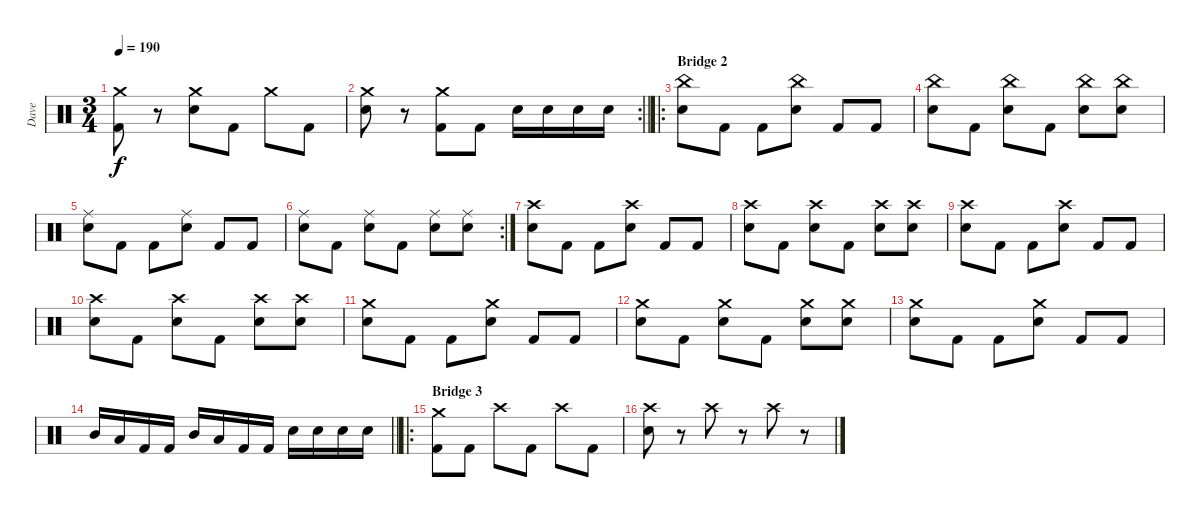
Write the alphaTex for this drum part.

\track ("Dave" "Dave") {instrument percussion}
\staff {score}
\articulation defaults
\ts (3 4)
\tempo 190
\clef neutral
\ks c
("Kick (hit) 2" "Crash medium (hit)").8{dy f} r.8 ("Electric Snare (hit)" "Crash medium (hit)").8 "Kick (hit) 2".8 "Crash medium (hit)".8 "Kick (hit) 2".8 |
\rc 2
\barLineRight lightlight
("Electric Snare (hit)" "Crash medium (hit)").8 r.8 ("Kick (hit) 2" "Crash medium (hit)").8 "Kick (hit) 2".8 "Electric Snare (hit)".16 "Electric Snare (hit)".16 "Electric Snare (hit)".16 "Electric Snare (hit)".16 |
\ro
\section ("" "Bridge 2")
("Electric Snare (hit)" "China (hit)").8 "Kick (hit) 2".8 "Kick (hit) 2".8 ("Electric Snare (hit)" "China (hit)").8 "Kick (hit) 2".8 "Kick (hit) 2".8 |
("Electric Snare (hit)" "China (hit)").8 "Kick (hit) 2".8 ("Electric Snare (hit)" "China (hit)").8 "Kick (hit) 2".8 ("Electric Snare (hit)" "China (hit)").8 ("Electric Snare (hit)" "China (hit)").8 |
("Electric Snare (hit)" "Ride (middle)").8 "Kick (hit) 2".8 "Kick (hit) 2".8 ("Electric Snare (hit)" "Ride (middle)").8 "Kick (hit) 2".8 "Kick (hit) 2".8 |
\rc 2
("Electric Snare (hit)" "Ride (middle)").8 "Kick (hit) 2".8 ("Electric Snare (hit)" "Ride (middle)").8 "Kick (hit) 2".8 ("Electric Snare (hit)" "Ride (middle)").8 ("Electric Snare (hit)" "Ride (middle)").8 |
("Electric Snare (hit)" "Crash high (hit)").8 "Kick (hit) 2".8 "Kick (hit) 2".8 ("Electric Snare (hit)" "Crash high (hit)").8 "Kick (hit) 2".8 "Kick (hit) 2".8 |
("Electric Snare (hit)" "Crash high (hit)").8 "Kick (hit) 2".8 ("Electric Snare (hit)" "Crash high (hit)").8 "Kick (hit) 2".8 ("Electric Snare (hit)" "Crash high (hit)").8 ("Electric Snare (hit)" "Crash high (hit)").8 |
("Electric Snare (hit)" "Crash high (hit)").8 "Kick (hit) 2".8 "Kick (hit) 2".8 ("Electric Snare (hit)" "Crash high (hit)").8 "Kick (hit) 2".8 "Kick (hit) 2".8 |
("Electric Snare (hit)" "Crash high (hit)").8 "Kick (hit) 2".8 ("Electric Snare (hit)" "Crash high (hit)").8 "Kick (hit) 2".8 ("Electric Snare (hit)" "Crash high (hit)").8 ("Electric Snare (hit)" "Crash high (hit)").8 |
("Electric Snare (hit)" "Crash medium (hit)").8 "Kick (hit) 2".8 "Kick (hit) 2".8 ("Electric Snare (hit)" "Crash medium (hit)").8 "Kick (hit) 2".8 "Kick (hit) 2".8 |
("Electric Snare (hit)" "Crash medium (hit)").8 "Kick (hit) 2".8 ("Electric Snare (hit)" "Crash medium (hit)").8 "Kick (hit) 2".8 ("Electric Snare (hit)" "Crash medium (hit)").8 ("Electric Snare (hit)" "Crash medium (hit)").8 |
("Electric Snare (hit)" "Crash medium (hit)").8 "Kick (hit) 2".8 "Kick (hit) 2".8 ("Electric Snare (hit)" "Crash medium (hit)").8 "Kick (hit) 2".8 "Kick (hit) 2".8 |
\barLineRight lightlight "Mid Tom (hit)".16 "Low Tom (hit)".16 "Kick (hit) 2".16 "Kick (hit) 2".16 "Mid Tom (hit)".16 "Low Tom (hit)".16 "Kick (hit) 2".16 "Kick (hit) 2".16 "Electric Snare (hit)".16 "Electric Snare (hit)".16 "Electric Snare (hit)".16 "Electric Snare (hit)".16
|
\ro
\section ("" "Bridge 3")
("Kick (hit) 2" "Crash medium (hit)").8 "Kick (hit) 2".8 "Crash high (hit)".8 "Kick (hit) 2".8 "Crash high (hit)".8 "Kick (hit) 2".8 |
("Electric Snare (hit)" "Crash high (hit)").8 r.8 "Crash high (hit)".8 r.8 "Crash high (hit)".8 r.8
